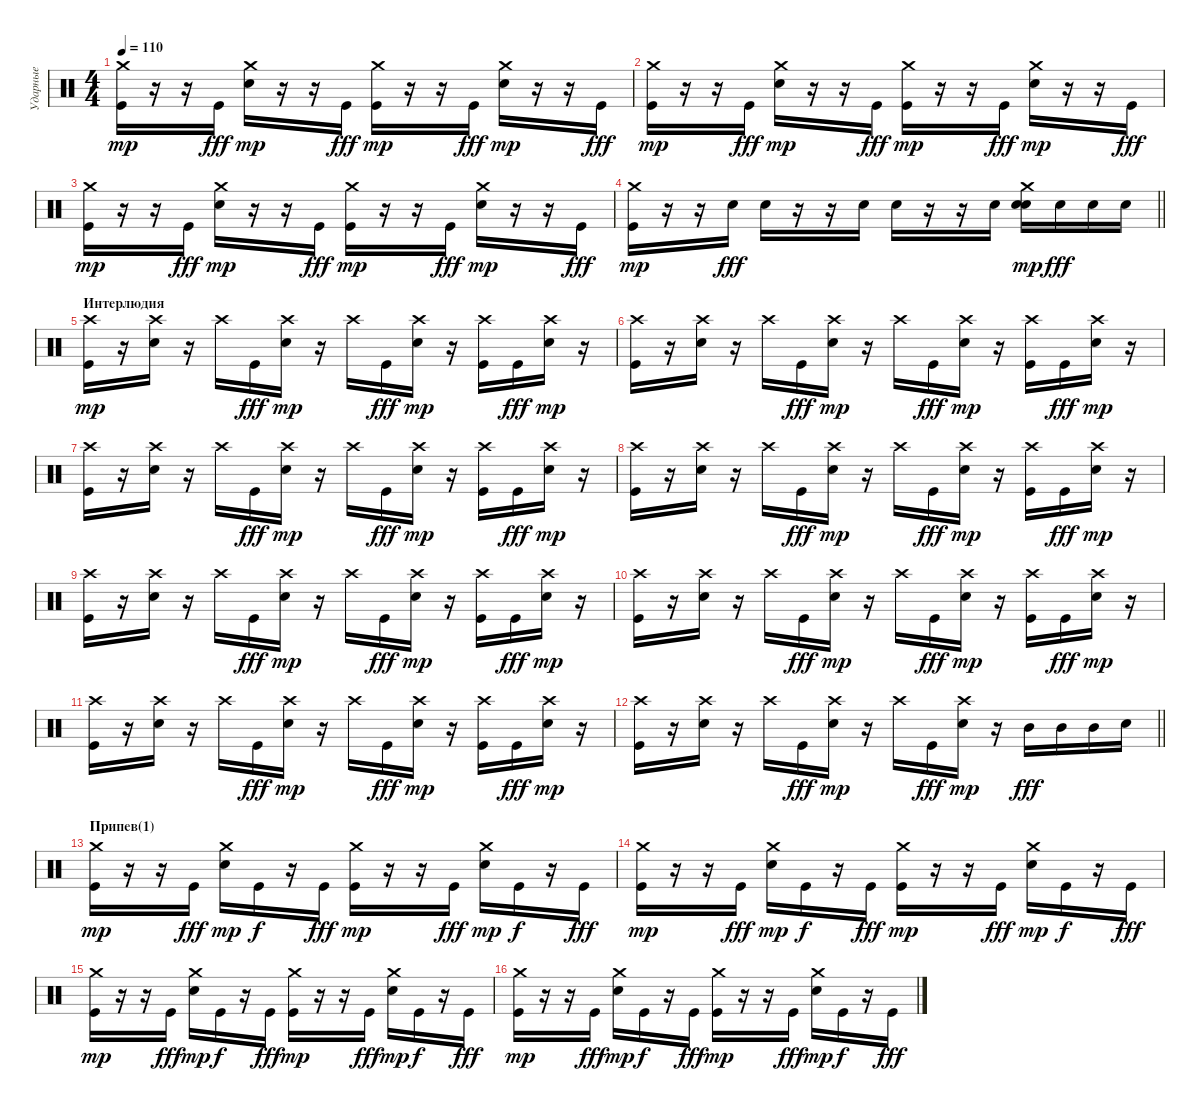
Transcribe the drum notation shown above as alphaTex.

\track ("Ударные" "Ударные") {instrument percussion}
\staff {score}
\articulation defaults
\ts (4 4)
\tempo 110
\clef neutral
\ks c
("Kick (hit)" "Crash medium (hit)").16{dy mp} r.16 r.16 "Kick (hit)".16{dy fff} ("Electric Snare (hit)" "Crash medium (hit)").16{dy mp} r.16 r.16 "Kick (hit)".16{dy fff} ("Kick (hit)" "Crash medium (hit)").16{dy mp} r.16 r.16 "Kick (hit)".16{dy fff} ("Electric Snare (hit)" "Crash medium (hit)").16{dy mp} r.16 r.16 "Kick (hit)".16{dy fff} |
("Kick (hit)" "Crash medium (hit)").16{dy mp} r.16 r.16 "Kick (hit)".16{dy fff} ("Electric Snare (hit)" "Crash medium (hit)").16{dy mp} r.16 r.16 "Kick (hit)".16{dy fff} ("Kick (hit)" "Crash medium (hit)").16{dy mp} r.16 r.16 "Kick (hit)".16{dy fff} ("Electric Snare (hit)" "Crash medium (hit)").16{dy mp} r.16 r.16 "Kick (hit)".16{dy fff} |
("Kick (hit)" "Crash medium (hit)").16{dy mp} r.16 r.16 "Kick (hit)".16{dy fff} ("Electric Snare (hit)" "Crash medium (hit)").16{dy mp} r.16 r.16 "Kick (hit)".16{dy fff} ("Kick (hit)" "Crash medium (hit)").16{dy mp} r.16 r.16 "Kick (hit)".16{dy fff} ("Electric Snare (hit)" "Crash medium (hit)").16{dy mp} r.16 r.16 "Kick (hit)".16{dy fff} |
\barLineRight lightlight
("Kick (hit)" "Crash medium (hit)").16{dy mp} r.16 r.16 "Electric Snare (hit)".16{dy fff} "Electric Snare (hit)".16 r.16 r.16 "Electric Snare (hit)".16 "Electric Snare (hit)".16 r.16 r.16 "Electric Snare (hit)".16 ("Electric Snare (hit)" "Electric Snare (hit)" "Crash medium (hit)").16{dy mp} "Electric Snare (hit)".16{dy fff} "Electric Snare (hit)".16 "Electric Snare (hit)".16 |
\section ("" "Интерлюдия")
("Kick (hit)" "Crash high (hit)").16{dy mp} r.16 ("Electric Snare (hit)" "Crash high (hit)").16 r.16 "Crash high (hit)".16 "Kick (hit)".16{dy fff} ("Electric Snare (hit)" "Crash high (hit)").16{dy mp} r.16 "Crash high (hit)".16 "Kick (hit)".16{dy fff} ("Electric Snare (hit)" "Crash high (hit)").16{dy mp} r.16 ("Kick (hit)" "Crash high (hit)").16 "Kick (hit)".16{dy fff} ("Electric Snare (hit)" "Crash high (hit)").16{dy mp} r.16 |
("Kick (hit)" "Crash high (hit)").16 r.16 ("Electric Snare (hit)" "Crash high (hit)").16 r.16 "Crash high (hit)".16 "Kick (hit)".16{dy fff} ("Electric Snare (hit)" "Crash high (hit)").16{dy mp} r.16 "Crash high (hit)".16 "Kick (hit)".16{dy fff} ("Electric Snare (hit)" "Crash high (hit)").16{dy mp} r.16 ("Kick (hit)" "Crash high (hit)").16 "Kick (hit)".16{dy fff} ("Electric Snare (hit)" "Crash high (hit)").16{dy mp} r.16 |
("Kick (hit)" "Crash high (hit)").16 r.16 ("Electric Snare (hit)" "Crash high (hit)").16 r.16 "Crash high (hit)".16 "Kick (hit)".16{dy fff} ("Electric Snare (hit)" "Crash high (hit)").16{dy mp} r.16 "Crash high (hit)".16 "Kick (hit)".16{dy fff} ("Electric Snare (hit)" "Crash high (hit)").16{dy mp} r.16 ("Kick (hit)" "Crash high (hit)").16 "Kick (hit)".16{dy fff} ("Electric Snare (hit)" "Crash high (hit)").16{dy mp} r.16 |
("Kick (hit)" "Crash high (hit)").16 r.16 ("Electric Snare (hit)" "Crash high (hit)").16 r.16 "Crash high (hit)".16 "Kick (hit)".16{dy fff} ("Electric Snare (hit)" "Crash high (hit)").16{dy mp} r.16 "Crash high (hit)".16 "Kick (hit)".16{dy fff} ("Electric Snare (hit)" "Crash high (hit)").16{dy mp} r.16 ("Kick (hit)" "Crash high (hit)").16 "Kick (hit)".16{dy fff} ("Electric Snare (hit)" "Crash high (hit)").16{dy mp} r.16 |
("Kick (hit)" "Crash high (hit)").16 r.16 ("Electric Snare (hit)" "Crash high (hit)").16 r.16 "Crash high (hit)".16 "Kick (hit)".16{dy fff} ("Electric Snare (hit)" "Crash high (hit)").16{dy mp} r.16 "Crash high (hit)".16 "Kick (hit)".16{dy fff} ("Electric Snare (hit)" "Crash high (hit)").16{dy mp} r.16 ("Kick (hit)" "Crash high (hit)").16 "Kick (hit)".16{dy fff} ("Electric Snare (hit)" "Crash high (hit)").16{dy mp} r.16 |
("Kick (hit)" "Crash high (hit)").16 r.16 ("Electric Snare (hit)" "Crash high (hit)").16 r.16 "Crash high (hit)".16 "Kick (hit)".16{dy fff} ("Electric Snare (hit)" "Crash high (hit)").16{dy mp} r.16 "Crash high (hit)".16 "Kick (hit)".16{dy fff} ("Electric Snare (hit)" "Crash high (hit)").16{dy mp} r.16 ("Kick (hit)" "Crash high (hit)").16 "Kick (hit)".16{dy fff} ("Electric Snare (hit)" "Crash high (hit)").16{dy mp} r.16 |
("Kick (hit)" "Crash high (hit)").16 r.16 ("Electric Snare (hit)" "Crash high (hit)").16 r.16 "Crash high (hit)".16 "Kick (hit)".16{dy fff} ("Electric Snare (hit)" "Crash high (hit)").16{dy mp} r.16 "Crash high (hit)".16 "Kick (hit)".16{dy fff} ("Electric Snare (hit)" "Crash high (hit)").16{dy mp} r.16 ("Kick (hit)" "Crash high (hit)").16 "Kick (hit)".16{dy fff} ("Electric Snare (hit)" "Crash high (hit)").16{dy mp} r.16 |
\barLineRight lightlight
("Kick (hit)" "Crash high (hit)").16 r.16 ("Electric Snare (hit)" "Crash high (hit)").16 r.16 "Crash high (hit)".16 "Kick (hit)".16{dy fff} ("Electric Snare (hit)" "Crash high (hit)").16{dy mp} r.16 "Crash high (hit)".16 "Kick (hit)".16{dy fff} ("Electric Snare (hit)" "Crash high (hit)").16{dy mp} r.16 "Mid Tom (hit)".16{dy fff} "Mid Tom (hit)".16 "Mid Tom (hit)".16 "Electric Snare (hit)".16 |
\section ("" "Припев(1)")
("Kick (hit)" "Crash medium (hit)").16{dy mp} r.16 r.16 "Kick (hit)".16{dy fff} ("Electric Snare (hit)" "Crash medium (hit)").16{dy mp} "Kick (hit)".16{dy f} r.16 "Kick (hit)".16{dy fff} ("Kick (hit)" "Crash medium (hit)").16{dy mp} r.16 r.16 "Kick (hit)".16{dy fff} ("Electric Snare (hit)" "Crash medium (hit)").16{dy mp} "Kick (hit)".16{dy f} r.16 "Kick (hit)".16{dy fff} |
("Kick (hit)" "Crash medium (hit)").16{dy mp} r.16 r.16 "Kick (hit)".16{dy fff} ("Electric Snare (hit)" "Crash medium (hit)").16{dy mp} "Kick (hit)".16{dy f} r.16 "Kick (hit)".16{dy fff} ("Kick (hit)" "Crash medium (hit)").16{dy mp} r.16 r.16 "Kick (hit)".16{dy fff} ("Electric Snare (hit)" "Crash medium (hit)").16{dy mp} "Kick (hit)".16{dy f} r.16 "Kick (hit)".16{dy fff} |
("Kick (hit)" "Crash medium (hit)").16{dy mp} r.16 r.16 "Kick (hit)".16{dy fff} ("Electric Snare (hit)" "Crash medium (hit)").16{dy mp} "Kick (hit)".16{dy f} r.16 "Kick (hit)".16{dy fff} ("Kick (hit)" "Crash medium (hit)").16{dy mp} r.16 r.16 "Kick (hit)".16{dy fff} ("Electric Snare (hit)" "Crash medium (hit)").16{dy mp} "Kick (hit)".16{dy f} r.16 "Kick (hit)".16{dy fff} |
("Kick (hit)" "Crash medium (hit)").16{dy mp} r.16 r.16 "Kick (hit)".16{dy fff} ("Electric Snare (hit)" "Crash medium (hit)").16{dy mp} "Kick (hit)".16{dy f} r.16 "Kick (hit)".16{dy fff} ("Kick (hit)" "Crash medium (hit)").16{dy mp} r.16 r.16 "Kick (hit)".16{dy fff} ("Electric Snare (hit)" "Crash medium (hit)").16{dy mp} "Kick (hit)".16{dy f} r.16 "Kick (hit)".16{dy fff}
